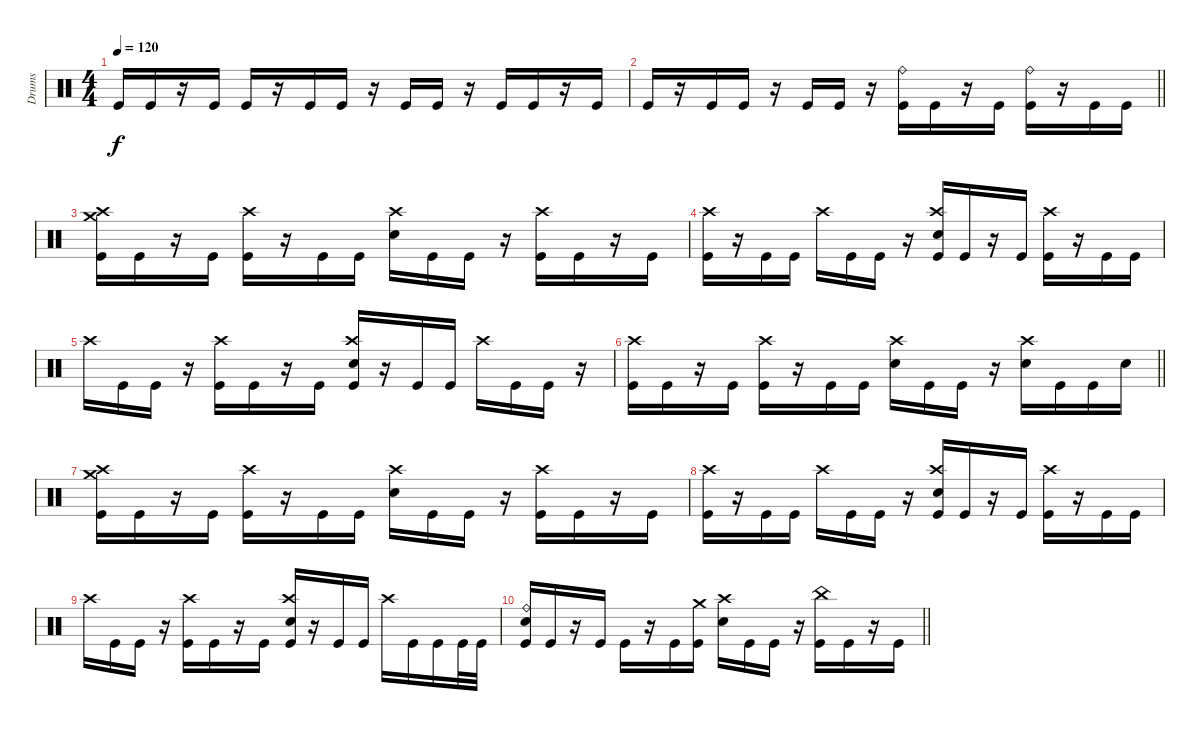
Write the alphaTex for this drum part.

\track ("Drums" "Drums") {instrument percussion}
\staff
\articulation defaults
\ts (4 4)
\tempo 120
\clef neutral
\ks c "Kick (hit)".16{dy f} "Kick (hit)".16
r.16 "Kick (hit)".16 "Kick (hit)".16 r.16 "Kick (hit)".16 "Kick (hit)".16 r.16 "Kick (hit)".16 "Kick (hit)".16 r.16 "Kick (hit)".16 "Kick (hit)".16 r.16 "Kick (hit)".16 |
\barLineRight lightlight "Kick (hit)".16
r.16 "Kick (hit)".16 "Kick (hit)".16 r.16 "Kick (hit)".16 "Kick (hit)".16 r.16 ("Ride (bell)" "Kick (hit)").16 "Kick (hit)".16 r.16 "Kick (hit)".16 ("Ride (bell)" "Kick (hit)").16 r.16 "Kick (hit)".16 "Kick (hit)".16 |
\section ("" "")
("Crash high (hit)" "Crash medium (hit)" "Kick (hit)").16 "Kick (hit)".16 r.16 "Kick (hit)".16 ("Crash high (hit)" "Kick (hit)").16 r.16 "Kick (hit)".16 "Kick (hit)".16 ("Crash high (hit)" "Electric Snare (hit)").16 "Kick (hit)".16 "Kick (hit)".16 r.16 ("Crash high (hit)" "Kick (hit)").16 "Kick (hit)".16 r.16 "Kick (hit)".16 |
("Crash high (hit)" "Kick (hit)").16 r.16 "Kick (hit)".16 "Kick (hit)".16 "Crash high (hit)".16 "Kick (hit)".16 "Kick (hit)".16 r.16 ("Crash high (hit)" "Electric Snare (hit)" "Kick (hit)").16 "Kick (hit)".16 r.16 "Kick (hit)".16 ("Crash high (hit)" "Kick (hit)").16 r.16 "Kick (hit)".16 "Kick (hit)".16 |
"Crash high (hit)".16 "Kick (hit)".16 "Kick (hit)".16 r.16 ("Crash high (hit)" "Kick (hit)").16 "Kick (hit)".16 r.16 "Kick (hit)".16 ("Crash high (hit)" "Electric Snare (hit)" "Kick (hit)").16 r.16 "Kick (hit)".16 "Kick (hit)".16 "Crash high (hit)".16 "Kick (hit)".16 "Kick (hit)".16 r.16 |
\barLineRight lightlight
("Crash high (hit)" "Kick (hit)").16 "Kick (hit)".16 r.16 "Kick (hit)".16 ("Crash high (hit)" "Kick (hit)").16 r.16 "Kick (hit)".16 "Kick (hit)".16 ("Crash high (hit)" "Electric Snare (hit)").16 "Kick (hit)".16 "Kick (hit)".16 r.16 ("Crash high (hit)" "Electric Snare (hit)").16 "Kick (hit)".16 "Kick (hit)".16 "Electric Snare (hit)".16 |
("Crash high (hit)" "Crash medium (hit)" "Kick (hit)").16 "Kick (hit)".16 r.16 "Kick (hit)".16 ("Crash high (hit)" "Kick (hit)").16 r.16 "Kick (hit)".16 "Kick (hit)".16 ("Crash high (hit)" "Electric Snare (hit)").16 "Kick (hit)".16 "Kick (hit)".16 r.16 ("Crash high (hit)" "Kick (hit)").16 "Kick (hit)".16 r.16 "Kick (hit)".16 |
("Crash high (hit)" "Kick (hit)").16 r.16 "Kick (hit)".16 "Kick (hit)".16 "Crash high (hit)".16 "Kick (hit)".16 "Kick (hit)".16 r.16 ("Crash high (hit)" "Electric Snare (hit)" "Kick (hit)").16 "Kick (hit)".16 r.16 "Kick (hit)".16 ("Crash high (hit)" "Kick (hit)").16 r.16 "Kick (hit)".16 "Kick (hit)".16 |
"Crash high (hit)".16 "Kick (hit)".16 "Kick (hit)".16 r.16 ("Crash high (hit)" "Kick (hit)").16 "Kick (hit)".16 r.16 "Kick (hit)".16 ("Crash high (hit)" "Electric Snare (hit)" "Kick (hit)").16 r.16 "Kick (hit)".16 "Kick (hit)".16 "Crash high (hit)".16 "Kick (hit)".16 "Kick (hit)".16 "Kick (hit)".32 "Kick (hit)".32 |
\barLineRight lightlight
("Ride (bell)" "Electric Snare (hit)" "Kick (hit)").16 "Kick (hit)".16 r.16 "Kick (hit)".16 "Kick (hit)".16 r.16 "Kick (hit)".16 ("Crash medium (hit)" "Kick (hit)").16 ("Crash high (hit)" "Electric Snare (hit)").16 "Kick (hit)".16 "Kick (hit)".16 r.16 ("China (hit)" "Kick (hit)").16 "Kick (hit)".16 r.16 "Kick (hit)".16
